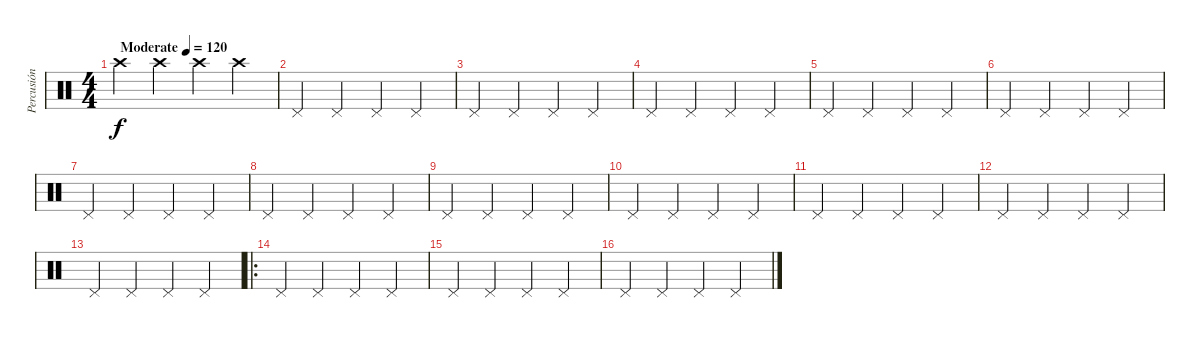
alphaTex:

\track ("Percusión" "Percusión") {instrument percussion}
\staff {score}
\articulation defaults
\ts (4 4)
\tempo (120 "Moderate")
\tempo 80
\tempo (120 "Moderate")
\clef neutral
\ks c "Crash high (hit)".4{dy f} "Crash high (hit)".4 "Crash high (hit)".4 "Crash high (hit)".4
|
"Pedal Hi-Hat (hit)".4 "Pedal Hi-Hat (hit)".4 "Pedal Hi-Hat (hit)".4 "Pedal Hi-Hat (hit)".4 |
"Pedal Hi-Hat (hit)".4 "Pedal Hi-Hat (hit)".4 "Pedal Hi-Hat (hit)".4 "Pedal Hi-Hat (hit)".4 |
"Pedal Hi-Hat (hit)".4 "Pedal Hi-Hat (hit)".4 "Pedal Hi-Hat (hit)".4 "Pedal Hi-Hat (hit)".4 |
"Pedal Hi-Hat (hit)".4 "Pedal Hi-Hat (hit)".4 "Pedal Hi-Hat (hit)".4 "Pedal Hi-Hat (hit)".4 |
"Pedal Hi-Hat (hit)".4 "Pedal Hi-Hat (hit)".4 "Pedal Hi-Hat (hit)".4 "Pedal Hi-Hat (hit)".4 |
"Pedal Hi-Hat (hit)".4 "Pedal Hi-Hat (hit)".4 "Pedal Hi-Hat (hit)".4 "Pedal Hi-Hat (hit)".4 |
"Pedal Hi-Hat (hit)".4 "Pedal Hi-Hat (hit)".4 "Pedal Hi-Hat (hit)".4 "Pedal Hi-Hat (hit)".4 |
"Pedal Hi-Hat (hit)".4 "Pedal Hi-Hat (hit)".4 "Pedal Hi-Hat (hit)".4 "Pedal Hi-Hat (hit)".4 |
"Pedal Hi-Hat (hit)".4 "Pedal Hi-Hat (hit)".4 "Pedal Hi-Hat (hit)".4 "Pedal Hi-Hat (hit)".4 |
"Pedal Hi-Hat (hit)".4 "Pedal Hi-Hat (hit)".4 "Pedal Hi-Hat (hit)".4 "Pedal Hi-Hat (hit)".4 |
"Pedal Hi-Hat (hit)".4 "Pedal Hi-Hat (hit)".4 "Pedal Hi-Hat (hit)".4 "Pedal Hi-Hat (hit)".4 |
"Pedal Hi-Hat (hit)".4 "Pedal Hi-Hat (hit)".4 "Pedal Hi-Hat (hit)".4 "Pedal Hi-Hat (hit)".4 |
\ro "Pedal Hi-Hat (hit)".4 "Pedal Hi-Hat (hit)".4 "Pedal Hi-Hat (hit)".4 "Pedal Hi-Hat (hit)".4
|
"Pedal Hi-Hat (hit)".4 "Pedal Hi-Hat (hit)".4 "Pedal Hi-Hat (hit)".4 "Pedal Hi-Hat (hit)".4 |
"Pedal Hi-Hat (hit)".4 "Pedal Hi-Hat (hit)".4 "Pedal Hi-Hat (hit)".4 "Pedal Hi-Hat (hit)".4
